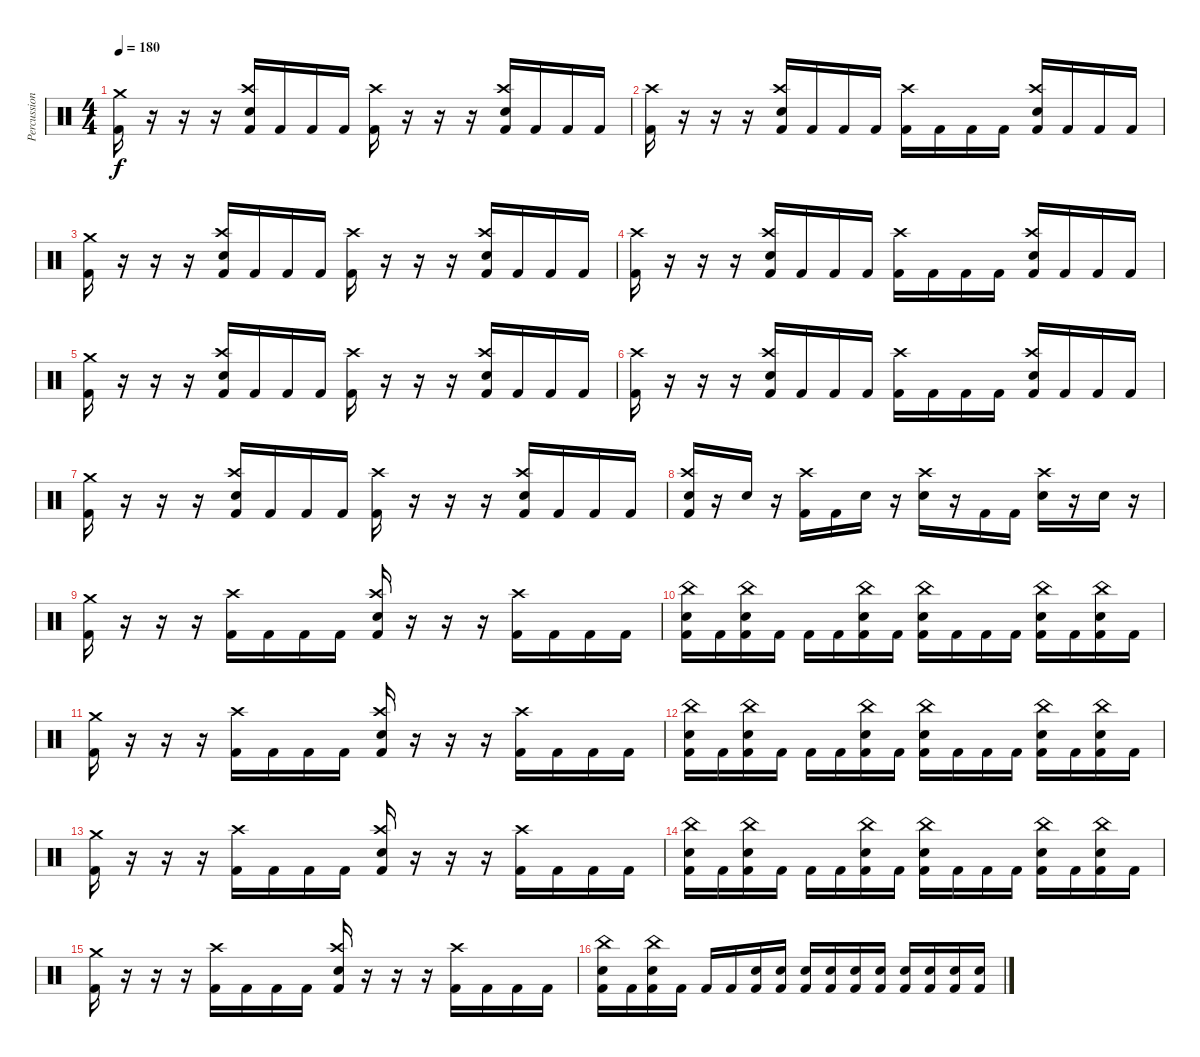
\track ("Percussions" "Percussion") {instrument percussion}
\staff {score}
\articulation defaults
\ts (4 4)
\tempo 180
\clef neutral
\ks c
("Crash medium (hit)" "Kick (hit) 2").16{dy f} r.16 r.16 r.16 ("Crash high (hit)" "Snare (hit) 2" "Kick (hit) 2").16 "Kick (hit) 2".16 "Kick (hit) 2".16 "Kick (hit) 2".16 ("Crash high (hit)" "Kick (hit) 2").16 r.16 r.16 r.16 ("Crash high (hit)" "Snare (hit) 2" "Kick (hit) 2").16 "Kick (hit) 2".16 "Kick (hit) 2".16 "Kick (hit) 2".16 |
("Crash high (hit)" "Kick (hit) 2").16 r.16 r.16 r.16 ("Crash high (hit)" "Snare (hit) 2" "Kick (hit) 2").16 "Kick (hit) 2".16 "Kick (hit) 2".16 "Kick (hit) 2".16 ("Crash high (hit)" "Kick (hit) 2").16 "Kick (hit) 2".16 "Kick (hit) 2".16 "Kick (hit) 2".16 ("Crash high (hit)" "Snare (hit) 2" "Kick (hit) 2").16 "Kick (hit) 2".16 "Kick (hit) 2".16 "Kick (hit) 2".16 |
("Crash medium (hit)" "Kick (hit) 2").16 r.16 r.16 r.16 ("Crash high (hit)" "Snare (hit) 2" "Kick (hit) 2").16 "Kick (hit) 2".16 "Kick (hit) 2".16 "Kick (hit) 2".16 ("Crash high (hit)" "Kick (hit) 2").16 r.16 r.16 r.16 ("Crash high (hit)" "Snare (hit) 2" "Kick (hit) 2").16 "Kick (hit) 2".16 "Kick (hit) 2".16 "Kick (hit) 2".16 |
("Crash high (hit)" "Kick (hit) 2").16 r.16 r.16 r.16 ("Crash high (hit)" "Snare (hit) 2" "Kick (hit) 2").16 "Kick (hit) 2".16 "Kick (hit) 2".16 "Kick (hit) 2".16 ("Crash high (hit)" "Kick (hit) 2").16 "Kick (hit) 2".16 "Kick (hit) 2".16 "Kick (hit) 2".16 ("Crash high (hit)" "Snare (hit) 2" "Kick (hit) 2").16 "Kick (hit) 2".16 "Kick (hit) 2".16 "Kick (hit) 2".16 |
("Crash medium (hit)" "Kick (hit) 2").16 r.16 r.16 r.16 ("Crash high (hit)" "Snare (hit) 2" "Kick (hit) 2").16 "Kick (hit) 2".16 "Kick (hit) 2".16 "Kick (hit) 2".16 ("Crash high (hit)" "Kick (hit) 2").16 r.16 r.16 r.16 ("Crash high (hit)" "Snare (hit) 2" "Kick (hit) 2").16 "Kick (hit) 2".16 "Kick (hit) 2".16 "Kick (hit) 2".16 |
("Crash high (hit)" "Kick (hit) 2").16 r.16 r.16 r.16 ("Crash high (hit)" "Snare (hit) 2" "Kick (hit) 2").16 "Kick (hit) 2".16 "Kick (hit) 2".16 "Kick (hit) 2".16 ("Crash high (hit)" "Kick (hit) 2").16 "Kick (hit) 2".16 "Kick (hit) 2".16 "Kick (hit) 2".16 ("Crash high (hit)" "Snare (hit) 2" "Kick (hit) 2").16 "Kick (hit) 2".16 "Kick (hit) 2".16 "Kick (hit) 2".16 |
("Crash medium (hit)" "Kick (hit) 2").16 r.16 r.16 r.16 ("Crash high (hit)" "Snare (hit) 2" "Kick (hit) 2").16 "Kick (hit) 2".16 "Kick (hit) 2".16 "Kick (hit) 2".16 ("Crash high (hit)" "Kick (hit) 2").16 r.16 r.16 r.16 ("Crash high (hit)" "Snare (hit) 2" "Kick (hit) 2").16 "Kick (hit) 2".16 "Kick (hit) 2".16 "Kick (hit) 2".16 |
("Crash high (hit)" "Snare (hit) 2" "Kick (hit) 2").16 r.16 "Snare (hit) 2".16 r.16 ("Crash high (hit)" "Kick (hit) 2").16 "Kick (hit) 2".16 "Snare (hit) 2".16 r.16 ("Crash high (hit)" "Snare (hit) 2").16 r.16 "Kick (hit) 2".16 "Kick (hit) 2".16 ("Crash high (hit)" "Snare (hit) 2").16 r.16 "Snare (hit) 2".16 r.16 |
("Crash medium (hit)" "Kick (hit) 2").16 r.16 r.16 r.16 ("Crash high (hit)" "Kick (hit) 2").16 "Kick (hit) 2".16 "Kick (hit) 2".16 "Kick (hit) 2".16 ("Crash high (hit)" "Snare (hit) 2" "Kick (hit) 2").16 r.16 r.16 r.16 ("Crash high (hit)" "Kick (hit) 2").16 "Kick (hit) 2".16 "Kick (hit) 2".16 "Kick (hit) 2".16 |
("China (hit)" "Snare (hit) 2" "Kick (hit) 2").16 "Kick (hit) 2".16 ("China (hit)" "Snare (hit) 2" "Kick (hit) 2").16 "Kick (hit) 2".16 "Kick (hit) 2".16 "Kick (hit) 2".16 ("China (hit)" "Snare (hit) 2" "Kick (hit) 2").16 "Kick (hit) 2".16 ("China (hit)" "Snare (hit) 2" "Kick (hit) 2").16 "Kick (hit) 2".16 "Kick (hit) 2".16 "Kick (hit) 2".16 ("China (hit)" "Snare (hit) 2" "Kick (hit) 2").16 "Kick (hit) 2".16 ("China (hit)" "Snare (hit) 2" "Kick (hit) 2").16 "Kick (hit) 2".16 |
("Crash medium (hit)" "Kick (hit) 2").16 r.16 r.16 r.16 ("Crash high (hit)" "Kick (hit) 2").16 "Kick (hit) 2".16 "Kick (hit) 2".16 "Kick (hit) 2".16 ("Crash high (hit)" "Snare (hit) 2" "Kick (hit) 2").16 r.16 r.16 r.16 ("Crash high (hit)" "Kick (hit) 2").16 "Kick (hit) 2".16 "Kick (hit) 2".16 "Kick (hit) 2".16 |
("China (hit)" "Snare (hit) 2" "Kick (hit) 2").16 "Kick (hit) 2".16 ("China (hit)" "Snare (hit) 2" "Kick (hit) 2").16 "Kick (hit) 2".16 "Kick (hit) 2".16 "Kick (hit) 2".16 ("China (hit)" "Snare (hit) 2" "Kick (hit) 2").16 "Kick (hit) 2".16 ("China (hit)" "Snare (hit) 2" "Kick (hit) 2").16 "Kick (hit) 2".16 "Kick (hit) 2".16 "Kick (hit) 2".16 ("China (hit)" "Snare (hit) 2" "Kick (hit) 2").16 "Kick (hit) 2".16 ("China (hit)" "Snare (hit) 2" "Kick (hit) 2").16 "Kick (hit) 2".16 |
("Crash medium (hit)" "Kick (hit) 2").16 r.16 r.16 r.16 ("Crash high (hit)" "Kick (hit) 2").16 "Kick (hit) 2".16 "Kick (hit) 2".16 "Kick (hit) 2".16 ("Crash high (hit)" "Snare (hit) 2" "Kick (hit) 2").16 r.16 r.16 r.16 ("Crash high (hit)" "Kick (hit) 2").16 "Kick (hit) 2".16 "Kick (hit) 2".16 "Kick (hit) 2".16 |
("China (hit)" "Snare (hit) 2" "Kick (hit) 2").16 "Kick (hit) 2".16 ("China (hit)" "Snare (hit) 2" "Kick (hit) 2").16 "Kick (hit) 2".16 "Kick (hit) 2".16 "Kick (hit) 2".16 ("China (hit)" "Snare (hit) 2" "Kick (hit) 2").16 "Kick (hit) 2".16 ("China (hit)" "Snare (hit) 2" "Kick (hit) 2").16 "Kick (hit) 2".16 "Kick (hit) 2".16 "Kick (hit) 2".16 ("China (hit)" "Snare (hit) 2" "Kick (hit) 2").16 "Kick (hit) 2".16 ("China (hit)" "Snare (hit) 2" "Kick (hit) 2").16 "Kick (hit) 2".16 |
("Crash medium (hit)" "Kick (hit) 2").16 r.16 r.16 r.16 ("Crash high (hit)" "Kick (hit) 2").16 "Kick (hit) 2".16 "Kick (hit) 2".16 "Kick (hit) 2".16 ("Crash high (hit)" "Snare (hit) 2" "Kick (hit) 2").16 r.16 r.16 r.16 ("Crash high (hit)" "Kick (hit) 2").16 "Kick (hit) 2".16 "Kick (hit) 2".16 "Kick (hit) 2".16 |
("China (hit)" "Snare (hit) 2" "Kick (hit) 2").16 "Kick (hit) 2".16 ("China (hit)" "Snare (hit) 2" "Kick (hit) 2").16 "Kick (hit) 2".16 "Kick (hit) 2".16 "Kick (hit) 2".16 ("Snare (hit) 2" "Kick (hit) 2").16 ("Snare (hit) 2" "Kick (hit) 2").16 ("Snare (hit) 2" "Kick (hit) 2").16 ("Snare (hit) 2" "Kick (hit) 2").16 ("Snare (hit) 2" "Kick (hit) 2").16 ("Snare (hit) 2" "Kick (hit) 2").16 ("Snare (hit) 2" "Kick (hit) 2").16 ("Snare (hit) 2" "Kick (hit) 2").16 ("Snare (hit) 2" "Kick (hit) 2").16 ("Snare (hit) 2" "Kick (hit) 2").16
